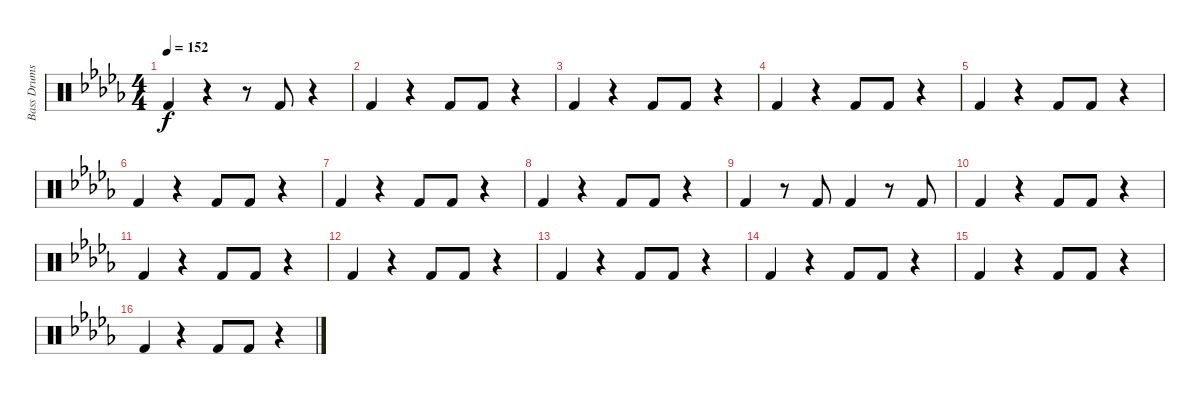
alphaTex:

\track ("Bass Drums" "Bass Drums") {instrument percussion}
\staff {score}
\articulation defaults
\ts (4 4)
\tempo 152
\clef neutral
\ks db "Kick (hit) 2".4{dy f}
r.4 r.8 "Kick (hit) 2".8 r.4 |
"Kick (hit) 2".4 r.4 "Kick (hit) 2".8 "Kick (hit) 2".8 r.4 |
"Kick (hit) 2".4 r.4 "Kick (hit) 2".8 "Kick (hit) 2".8 r.4 |
"Kick (hit) 2".4 r.4 "Kick (hit) 2".8 "Kick (hit) 2".8 r.4 |
"Kick (hit) 2".4 r.4 "Kick (hit) 2".8 "Kick (hit) 2".8 r.4 |
"Kick (hit) 2".4 r.4 "Kick (hit) 2".8 "Kick (hit) 2".8 r.4 |
"Kick (hit) 2".4 r.4 "Kick (hit) 2".8 "Kick (hit) 2".8 r.4 |
"Kick (hit) 2".4 r.4 "Kick (hit) 2".8 "Kick (hit) 2".8 r.4 |
"Kick (hit) 2".4 r.8 "Kick (hit) 2".8 "Kick (hit) 2".4 r.8 "Kick (hit) 2".8 |
"Kick (hit) 2".4 r.4 "Kick (hit) 2".8 "Kick (hit) 2".8 r.4 |
"Kick (hit) 2".4 r.4 "Kick (hit) 2".8 "Kick (hit) 2".8 r.4 |
"Kick (hit) 2".4 r.4 "Kick (hit) 2".8 "Kick (hit) 2".8 r.4 |
"Kick (hit) 2".4 r.4 "Kick (hit) 2".8 "Kick (hit) 2".8 r.4 |
"Kick (hit) 2".4 r.4 "Kick (hit) 2".8 "Kick (hit) 2".8 r.4 |
"Kick (hit) 2".4 r.4 "Kick (hit) 2".8 "Kick (hit) 2".8 r.4 |
"Kick (hit) 2".4 r.4 "Kick (hit) 2".8 "Kick (hit) 2".8 r.4
